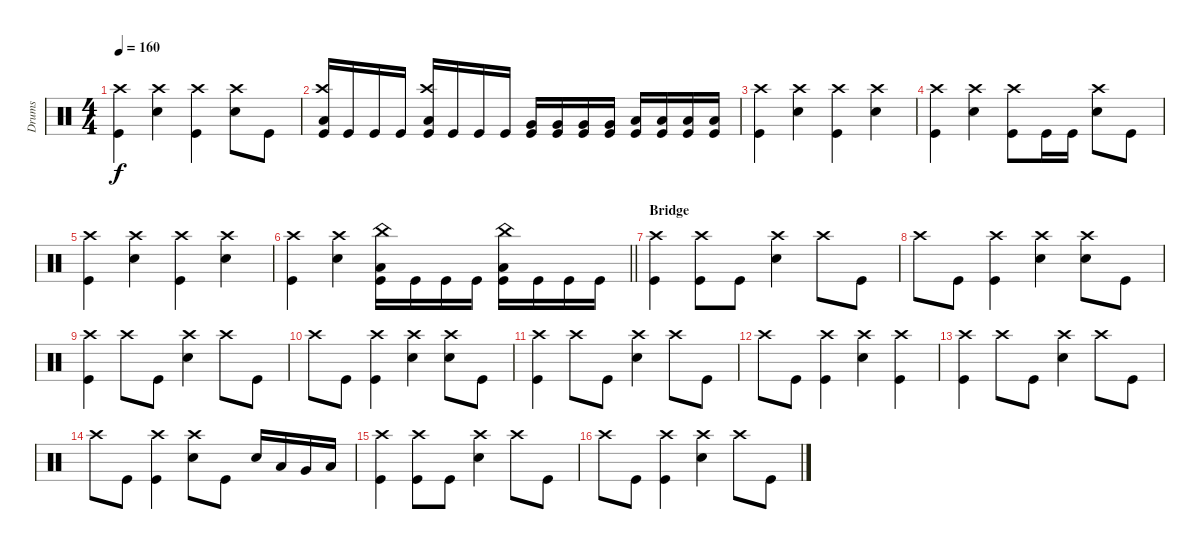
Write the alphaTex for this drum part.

\track ("Drums" "Drums") {instrument percussion}
\staff {score}
\articulation defaults
\ts (4 4)
\tempo 160
\clef neutral
\ks c
("Kick (hit)" "Crash high (hit)").4{dy f} ("Snare (hit) 2" "Crash high (hit)").4 ("Kick (hit)" "Crash high (hit)").4 ("Snare (hit) 2" "Crash high (hit)").8 "Kick (hit)".8 |
("Kick (hit)" "Low Floor Tom (hit)" "Crash high (hit)").16 "Kick (hit)".16 "Kick (hit)".16 "Kick (hit)".16 ("Kick (hit)" "Low Floor Tom (hit)" "Crash high (hit)").16 "Kick (hit)".16 "Kick (hit)".16 "Kick (hit)".16 ("Kick (hit)" "Very Low Tom (hit)").16 ("Kick (hit)" "Very Low Tom (hit)").16 ("Very Low Tom (hit)" "Kick (hit)").16 ("Kick (hit)" "Very Low Tom (hit)").16 ("Kick (hit)" "Low Floor Tom (hit)").16 ("Kick (hit)" "Low Floor Tom (hit)").16 ("Low Floor Tom (hit)" "Kick (hit)").16 ("Kick (hit)" "Low Floor Tom (hit)").16 |
("Kick (hit)" "Crash high (hit)").4 ("Snare (hit) 2" "Crash high (hit)").4 ("Kick (hit)" "Crash high (hit)").4 ("Snare (hit) 2" "Crash high (hit)").4 |
("Kick (hit)" "Crash high (hit)").4 ("Snare (hit) 2" "Crash high (hit)").4 ("Kick (hit)" "Crash high (hit)").8 "Kick (hit)".16 "Kick (hit)".16 ("Snare (hit) 2" "Crash high (hit)").8 "Kick (hit)".8 |
("Kick (hit)" "Crash high (hit)").4 ("Snare (hit) 2" "Crash high (hit)").4 ("Kick (hit)" "Crash high (hit)").4 ("Snare (hit) 2" "Crash high (hit)").4 |
\barLineRight lightlight
("Kick (hit)" "Crash high (hit)").4 ("Snare (hit) 2" "Crash high (hit)").4 ("Kick (hit)" "Low Floor Tom (hit)" "China (hit)").16 "Kick (hit)".16 "Kick (hit)".16 "Kick (hit)".16 ("Kick (hit)" "Low Floor Tom (hit)" "China (hit)").16 "Kick (hit)".16 "Kick (hit)".16 "Kick (hit)".16 |
\section ("" "Bridge")
("Kick (hit)" "Crash high (hit)").4 ("Kick (hit)" "Crash high (hit)").8 "Kick (hit)".8 ("Crash high (hit)" "Snare (hit) 2").4 "Crash high (hit)".8 "Kick (hit)".8 |
"Crash high (hit)".8 "Kick (hit)".8 ("Kick (hit)" "Crash high (hit)").4 ("Crash high (hit)" "Snare (hit) 2").4 ("Crash high (hit)" "Snare (hit) 2").8 "Kick (hit)".8 |
("Kick (hit)" "Crash high (hit)").4 "Crash high (hit)".8 "Kick (hit)".8 ("Crash high (hit)" "Snare (hit) 2").4 "Crash high (hit)".8 "Kick (hit)".8 |
"Crash high (hit)".8 "Kick (hit)".8 ("Kick (hit)" "Crash high (hit)").4 ("Crash high (hit)" "Snare (hit) 2").4 ("Crash high (hit)" "Snare (hit) 2").8 "Kick (hit)".8 |
("Kick (hit)" "Crash high (hit)").4 "Crash high (hit)".8 "Kick (hit)".8 ("Crash high (hit)" "Snare (hit) 2").4 "Crash high (hit)".8 "Kick (hit)".8 |
"Crash high (hit)".8 "Kick (hit)".8 ("Kick (hit)" "Crash high (hit)").4 ("Crash high (hit)" "Snare (hit) 2").4 ("Kick (hit)" "Crash high (hit)").4 |
("Kick (hit)" "Crash high (hit)").4 "Crash high (hit)".8 "Kick (hit)".8 ("Snare (hit) 2" "Crash high (hit)").4 "Crash high (hit)".8 "Kick (hit)".8 |
"Crash high (hit)".8 "Kick (hit)".8 ("Kick (hit)" "Crash high (hit)").4 ("Snare (hit) 2" "Crash high (hit)").8 "Kick (hit)".8 "Snare (hit) 2".16 "Low Tom (hit)".16 "Very Low Tom (hit)".16 "Low Floor Tom (hit)".16 |
("Kick (hit)" "Crash high (hit)").4 ("Kick (hit)" "Crash high (hit)").8 "Kick (hit)".8 ("Snare (hit) 2" "Crash high (hit)").4 "Crash high (hit)".8 "Kick (hit)".8 |
"Crash high (hit)".8 "Kick (hit)".8 ("Kick (hit)" "Crash high (hit)").4 ("Snare (hit) 2" "Crash high (hit)").4 "Crash high (hit)".8 "Kick (hit)".8
